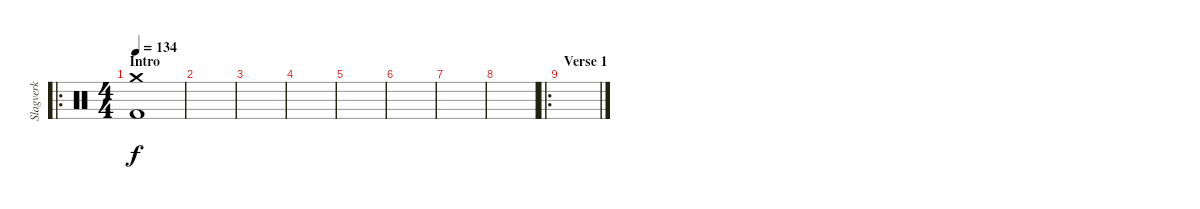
\track ("Slagverk" "Slagverk") {instrument percussion}
\staff {score}
\articulation defaults
\ro
\ts (4 4)
\section ("" "Intro")
\tempo 134
\clef neutral
\ks c
("Crash medium (hit)" "Kick (hit) 2").1{dy f} |
|
|
|
|
|
|
|
\ro
\section ("" "Verse 1")
